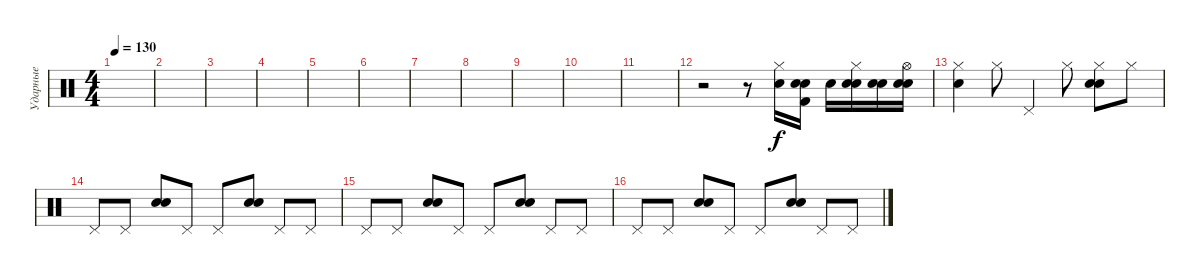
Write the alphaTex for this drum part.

\track ("Ударные" "Ударные") {instrument percussion}
\staff {score}
\articulation defaults
\ts (4 4)
\tempo 130
\clef neutral
\ks c
|
|
|
|
|
|
|
|
|
|
|
r.2 r.8 ("Snare (hit) 2" "Hi-Hat (closed)").16 ("Snare (hit) 2" "Kick (hit) 2" "Electric Snare (hit)").16 "Snare (hit) 2".16 ("Snare (hit) 2" "Hi-Hat (closed)" "Electric Snare (hit)").16 ("Snare (hit) 2" "Electric Snare (hit)").16 ("Snare (hit) 2" "Electric Snare (hit)" "Hi-Hat (open)").16 |
("Snare (hit) 2" "Hi-Hat (closed)").4 "Hi-Hat (closed)".8 "Pedal Hi-Hat (hit)".4 "Hi-Hat (closed)".8 ("Electric Snare (hit)" "Hi-Hat (closed)" "Snare (hit) 2").8 "Hi-Hat (closed)".8 |
"Pedal Hi-Hat (hit)".8 "Pedal Hi-Hat (hit)".8 ("Electric Snare (hit)" "Snare (hit) 2").8 "Pedal Hi-Hat (hit)".8 "Pedal Hi-Hat (hit)".8 ("Snare (hit) 2" "Electric Snare (hit)").8 "Pedal Hi-Hat (hit)".8 "Pedal Hi-Hat (hit)".8 |
"Pedal Hi-Hat (hit)".8 "Pedal Hi-Hat (hit)".8 ("Electric Snare (hit)" "Snare (hit) 2").8 "Pedal Hi-Hat (hit)".8 "Pedal Hi-Hat (hit)".8 ("Snare (hit) 2" "Electric Snare (hit)").8 "Pedal Hi-Hat (hit)".8 "Pedal Hi-Hat (hit)".8 |
"Pedal Hi-Hat (hit)".8 "Pedal Hi-Hat (hit)".8 ("Electric Snare (hit)" "Snare (hit) 2").8 "Pedal Hi-Hat (hit)".8 "Pedal Hi-Hat (hit)".8 ("Snare (hit) 2" "Electric Snare (hit)").8 "Pedal Hi-Hat (hit)".8 "Pedal Hi-Hat (hit)".8
